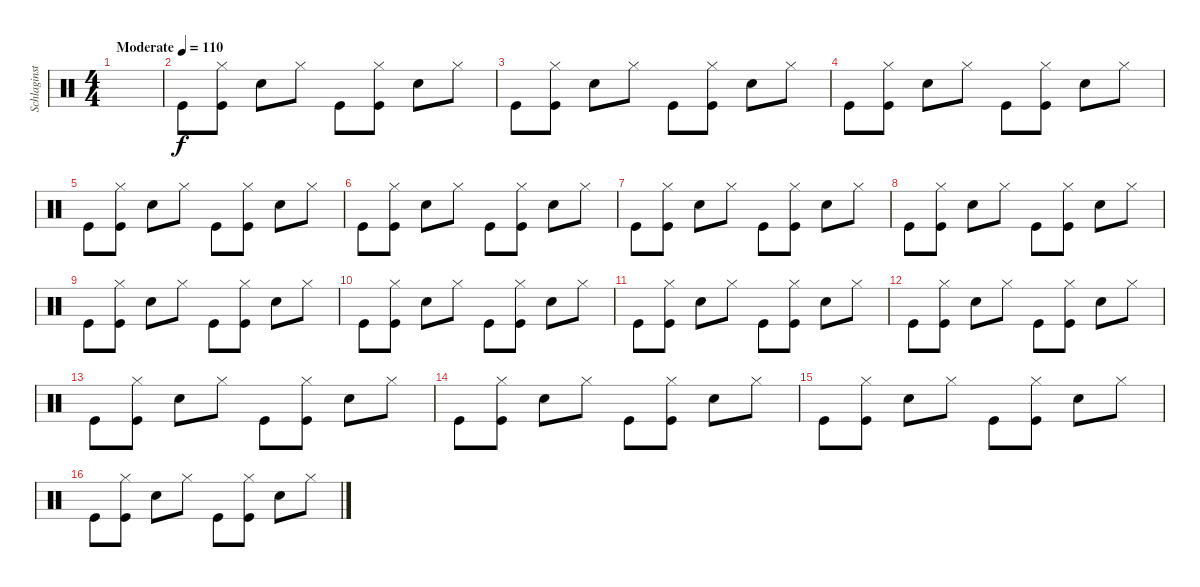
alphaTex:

\track ("Schlaginstrumente - Auswahl" "Schlaginst") {instrument percussion}
\staff {score}
\articulation defaults
\ts (4 4)
\tempo (110 "Moderate")
\clef neutral
\ks c
|
"Kick (hit)".8 ("Kick (hit)" "Hi-Hat (closed)").8 "Snare (hit) 2".8 "Hi-Hat (closed)".8 "Kick (hit)".8 ("Kick (hit)" "Hi-Hat (closed)").8 "Snare (hit) 2".8 "Hi-Hat (closed)".8 |
"Kick (hit)".8 ("Kick (hit)" "Hi-Hat (closed)").8 "Snare (hit) 2".8 "Hi-Hat (closed)".8 "Kick (hit)".8 ("Kick (hit)" "Hi-Hat (closed)").8 "Snare (hit) 2".8 "Hi-Hat (closed)".8 |
"Kick (hit)".8 ("Kick (hit)" "Hi-Hat (closed)").8 "Snare (hit) 2".8 "Hi-Hat (closed)".8 "Kick (hit)".8 ("Kick (hit)" "Hi-Hat (closed)").8 "Snare (hit) 2".8 "Hi-Hat (closed)".8 |
"Kick (hit)".8 ("Kick (hit)" "Hi-Hat (closed)").8 "Snare (hit) 2".8 "Hi-Hat (closed)".8 "Kick (hit)".8 ("Kick (hit)" "Hi-Hat (closed)").8 "Snare (hit) 2".8 "Hi-Hat (closed)".8 |
"Kick (hit)".8 ("Kick (hit)" "Hi-Hat (closed)").8 "Snare (hit) 2".8 "Hi-Hat (closed)".8 "Kick (hit)".8 ("Kick (hit)" "Hi-Hat (closed)").8 "Snare (hit) 2".8 "Hi-Hat (closed)".8 |
"Kick (hit)".8 ("Kick (hit)" "Hi-Hat (closed)").8 "Snare (hit) 2".8 "Hi-Hat (closed)".8 "Kick (hit)".8 ("Kick (hit)" "Hi-Hat (closed)").8 "Snare (hit) 2".8 "Hi-Hat (closed)".8 |
"Kick (hit)".8 ("Kick (hit)" "Hi-Hat (closed)").8 "Snare (hit) 2".8 "Hi-Hat (closed)".8 "Kick (hit)".8 ("Kick (hit)" "Hi-Hat (closed)").8 "Snare (hit) 2".8 "Hi-Hat (closed)".8 |
"Kick (hit)".8 ("Kick (hit)" "Hi-Hat (closed)").8 "Snare (hit) 2".8 "Hi-Hat (closed)".8 "Kick (hit)".8 ("Kick (hit)" "Hi-Hat (closed)").8 "Snare (hit) 2".8 "Hi-Hat (closed)".8 |
"Kick (hit)".8 ("Kick (hit)" "Hi-Hat (closed)").8 "Snare (hit) 2".8 "Hi-Hat (closed)".8 "Kick (hit)".8 ("Kick (hit)" "Hi-Hat (closed)").8 "Snare (hit) 2".8 "Hi-Hat (closed)".8 |
"Kick (hit)".8 ("Kick (hit)" "Hi-Hat (closed)").8 "Snare (hit) 2".8 "Hi-Hat (closed)".8 "Kick (hit)".8 ("Kick (hit)" "Hi-Hat (closed)").8 "Snare (hit) 2".8 "Hi-Hat (closed)".8 |
"Kick (hit)".8 ("Kick (hit)" "Hi-Hat (closed)").8 "Snare (hit) 2".8 "Hi-Hat (closed)".8 "Kick (hit)".8 ("Kick (hit)" "Hi-Hat (closed)").8 "Snare (hit) 2".8 "Hi-Hat (closed)".8 |
"Kick (hit)".8 ("Kick (hit)" "Hi-Hat (closed)").8 "Snare (hit) 2".8 "Hi-Hat (closed)".8 "Kick (hit)".8 ("Kick (hit)" "Hi-Hat (closed)").8 "Snare (hit) 2".8 "Hi-Hat (closed)".8 |
"Kick (hit)".8 ("Kick (hit)" "Hi-Hat (closed)").8 "Snare (hit) 2".8 "Hi-Hat (closed)".8 "Kick (hit)".8 ("Kick (hit)" "Hi-Hat (closed)").8 "Snare (hit) 2".8 "Hi-Hat (closed)".8 |
"Kick (hit)".8 ("Kick (hit)" "Hi-Hat (closed)").8 "Snare (hit) 2".8 "Hi-Hat (closed)".8 "Kick (hit)".8 ("Kick (hit)" "Hi-Hat (closed)").8 "Snare (hit) 2".8 "Hi-Hat (closed)".8 |
"Kick (hit)".8 ("Kick (hit)" "Hi-Hat (closed)").8 "Snare (hit) 2".8 "Hi-Hat (closed)".8 "Kick (hit)".8 ("Kick (hit)" "Hi-Hat (closed)").8 "Snare (hit) 2".8 "Hi-Hat (closed)".8
